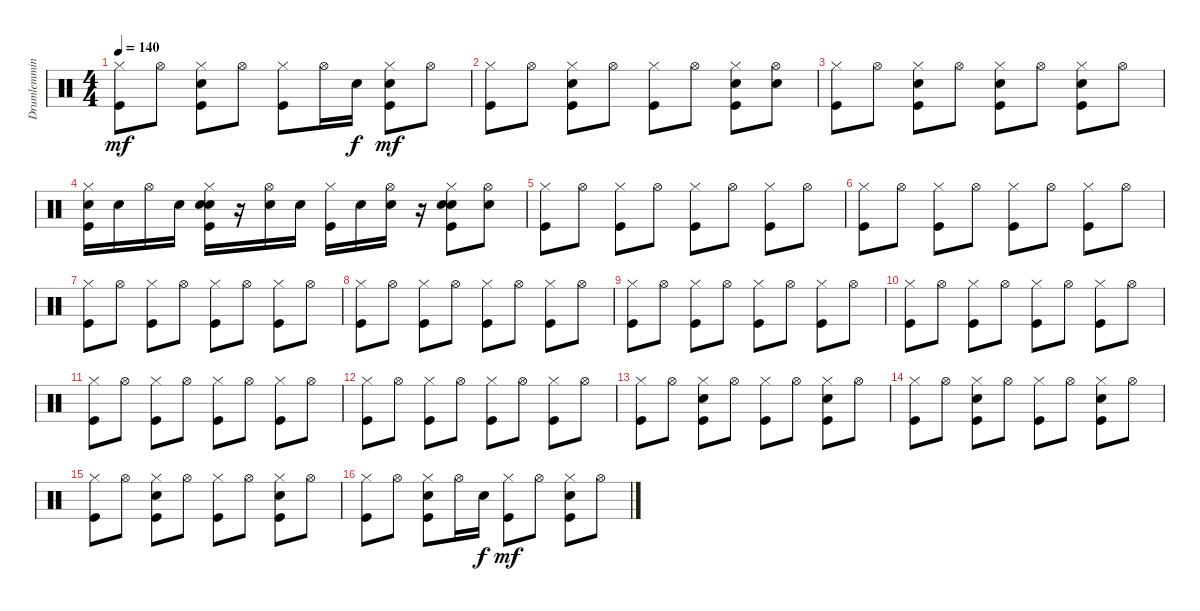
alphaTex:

\track ("Drumlemming" "Drumlemmin") {instrument percussion}
\staff {score}
\articulation defaults
\ts (4 4)
\tempo 140
\clef neutral
\ks c
("Hi-Hat (closed)" "Kick (hit)").8{dy mf} "Hi-Hat (open)".8 ("Hi-Hat (closed)" "Snare (hit) 2" "Kick (hit)").8 "Hi-Hat (open)".8 ("Hi-Hat (closed)" "Kick (hit)").8 "Hi-Hat (open)".16 "Snare (hit) 2".16{dy f} ("Hi-Hat (closed)" "Snare (hit) 2" "Kick (hit)").8{dy mf} "Hi-Hat (open)".8 |
("Hi-Hat (closed)" "Kick (hit)").8 "Hi-Hat (open)".8 ("Hi-Hat (closed)" "Snare (hit) 2" "Kick (hit)").8 "Hi-Hat (open)".8 ("Hi-Hat (closed)" "Kick (hit)").8 "Hi-Hat (open)".8 ("Hi-Hat (closed)" "Snare (hit) 2" "Kick (hit)").8 ("Hi-Hat (open)" "Snare (hit) 2").8 |
("Hi-Hat (closed)" "Kick (hit)").8 "Hi-Hat (open)".8 ("Hi-Hat (closed)" "Snare (hit) 2" "Kick (hit)").8 "Hi-Hat (open)".8 ("Hi-Hat (closed)" "Snare (hit) 2" "Kick (hit)").8 "Hi-Hat (open)".8 ("Hi-Hat (closed)" "Snare (hit) 2" "Kick (hit)").8 "Hi-Hat (open)".8 |
("Hi-Hat (closed)" "Hand Clap (hit)" "Kick (hit)").16 "Hand Clap (hit)".16 "Hi-Hat (open)".16 "Hand Clap (hit)".16 ("Hi-Hat (closed)" "Hand Clap (hit)" "Snare (hit) 2" "Kick (hit)").16 r.16 ("Hi-Hat (open)" "Hand Clap (hit)").16 "Hand Clap (hit)".16 ("Hi-Hat (closed)" "Kick (hit)").16 "Hand Clap (hit)".16 ("Hi-Hat (open)" "Hand Clap (hit)").16 r.16 ("Hi-Hat (closed)" "Hand Clap (hit)" "Snare (hit) 2" "Kick (hit)").8 ("Hi-Hat (open)" "Hand Clap (hit)").8 |
("Hi-Hat (closed)" "Kick (hit)").8 "Hi-Hat (open)".8 ("Hi-Hat (closed)" "Kick (hit)").8 "Hi-Hat (open)".8 ("Hi-Hat (closed)" "Kick (hit)").8 "Hi-Hat (open)".8 ("Hi-Hat (closed)" "Kick (hit)").8 "Hi-Hat (open)".8 |
("Hi-Hat (closed)" "Kick (hit)").8 "Hi-Hat (open)".8 ("Hi-Hat (closed)" "Kick (hit)").8 "Hi-Hat (open)".8 ("Hi-Hat (closed)" "Kick (hit)").8 "Hi-Hat (open)".8 ("Hi-Hat (closed)" "Kick (hit)").8 "Hi-Hat (open)".8 |
("Hi-Hat (closed)" "Kick (hit)").8 "Hi-Hat (open)".8 ("Hi-Hat (closed)" "Kick (hit)").8 "Hi-Hat (open)".8 ("Hi-Hat (closed)" "Kick (hit)").8 "Hi-Hat (open)".8 ("Hi-Hat (closed)" "Kick (hit)").8 "Hi-Hat (open)".8 |
("Hi-Hat (closed)" "Kick (hit)").8 "Hi-Hat (open)".8 ("Hi-Hat (closed)" "Kick (hit)").8 "Hi-Hat (open)".8 ("Hi-Hat (closed)" "Kick (hit)").8 "Hi-Hat (open)".8 ("Hi-Hat (closed)" "Kick (hit)").8 "Hi-Hat (open)".8 |
("Hi-Hat (closed)" "Kick (hit)").8 "Hi-Hat (open)".8 ("Hi-Hat (closed)" "Kick (hit)").8 "Hi-Hat (open)".8 ("Hi-Hat (closed)" "Kick (hit)").8 "Hi-Hat (open)".8 ("Hi-Hat (closed)" "Kick (hit)").8 "Hi-Hat (open)".8 |
("Hi-Hat (closed)" "Kick (hit)").8 "Hi-Hat (open)".8 ("Hi-Hat (closed)" "Kick (hit)").8 "Hi-Hat (open)".8 ("Hi-Hat (closed)" "Kick (hit)").8 "Hi-Hat (open)".8 ("Hi-Hat (closed)" "Kick (hit)").8 "Hi-Hat (open)".8 |
("Hi-Hat (closed)" "Kick (hit)").8 "Hi-Hat (open)".8 ("Hi-Hat (closed)" "Kick (hit)").8 "Hi-Hat (open)".8 ("Hi-Hat (closed)" "Kick (hit)").8 "Hi-Hat (open)".8 ("Hi-Hat (closed)" "Kick (hit)").8 "Hi-Hat (open)".8 |
("Hi-Hat (closed)" "Kick (hit)").8 "Hi-Hat (open)".8 ("Hi-Hat (closed)" "Kick (hit)").8 "Hi-Hat (open)".8 ("Hi-Hat (closed)" "Kick (hit)").8 "Hi-Hat (open)".8 ("Hi-Hat (closed)" "Kick (hit)").8 "Hi-Hat (open)".8 |
("Hi-Hat (closed)" "Kick (hit)").8 "Hi-Hat (open)".8 ("Hi-Hat (closed)" "Hand Clap (hit)" "Kick (hit)").8 "Hi-Hat (open)".8 ("Hi-Hat (closed)" "Kick (hit)").8 "Hi-Hat (open)".8 ("Hi-Hat (closed)" "Hand Clap (hit)" "Kick (hit)").8 "Hi-Hat (open)".8 |
("Hi-Hat (closed)" "Kick (hit)").8 "Hi-Hat (open)".8 ("Hi-Hat (closed)" "Hand Clap (hit)" "Kick (hit)").8 "Hi-Hat (open)".8 ("Hi-Hat (closed)" "Kick (hit)").8 "Hi-Hat (open)".8 ("Hi-Hat (closed)" "Hand Clap (hit)" "Kick (hit)").8 "Hi-Hat (open)".8 |
("Hi-Hat (closed)" "Kick (hit)").8 "Hi-Hat (open)".8 ("Hi-Hat (closed)" "Hand Clap (hit)" "Kick (hit)").8 "Hi-Hat (open)".8 ("Hi-Hat (closed)" "Kick (hit)").8 "Hi-Hat (open)".8 ("Hi-Hat (closed)" "Hand Clap (hit)" "Kick (hit)").8 "Hi-Hat (open)".8 |
("Hi-Hat (closed)" "Kick (hit)").8 "Hi-Hat (open)".8 ("Hi-Hat (closed)" "Hand Clap (hit)" "Kick (hit)").8 "Hi-Hat (open)".16 "Hand Clap (hit)".16{dy f} ("Hi-Hat (closed)" "Kick (hit)").8{dy mf} "Hi-Hat (open)".8 ("Hi-Hat (closed)" "Hand Clap (hit)" "Kick (hit)").8 "Hi-Hat (open)".8
